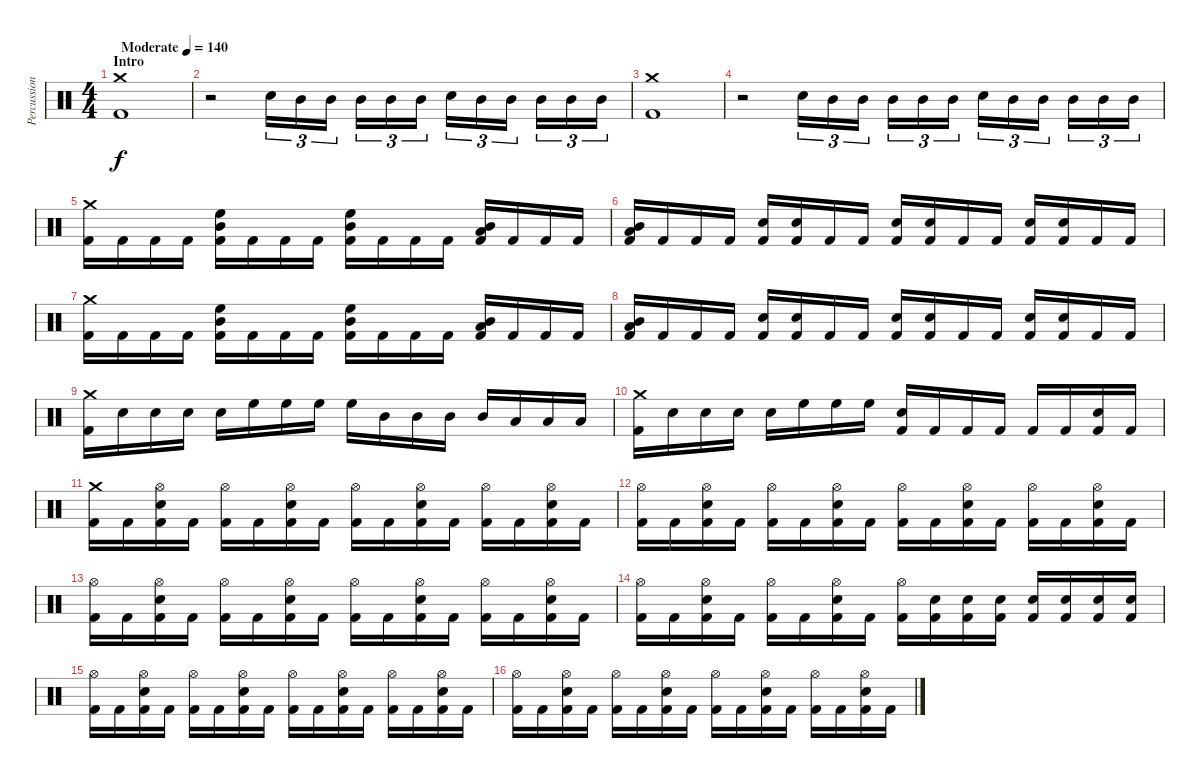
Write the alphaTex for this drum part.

\track ("Percussion" "Percussion") {instrument percussion}
\staff {score}
\articulation defaults
\ts (4 4)
\section ("" "Intro")
\tempo (140 "Moderate")
\clef neutral
\ks c
("Kick (hit) 2" "Crash medium (hit)").1{dy f} |
r.2 "Electric Snare (hit)".16{tu (3 2)} "Mid Tom (hit)".16{tu (3 2)} "Mid Tom (hit)".16{tu (3 2) beam splitsecondary} "Mid Tom (hit)".16{tu (3 2)} "Mid Tom (hit)".16{tu (3 2)} "Mid Tom (hit)".16{tu (3 2)} "Electric Snare (hit)".16{tu (3 2)} "Mid Tom (hit)".16{tu (3 2)} "Mid Tom (hit)".16{tu (3 2) beam splitsecondary} "Mid Tom (hit)".16{tu (3 2)} "Mid Tom (hit)".16{tu (3 2)} "Mid Tom (hit)".16{tu (3 2)} |
("Kick (hit) 2" "Crash medium (hit)").1 |
r.2 "Electric Snare (hit)".16{tu (3 2)} "Mid Tom (hit)".16{tu (3 2)} "Mid Tom (hit)".16{tu (3 2) beam splitsecondary} "Mid Tom (hit)".16{tu (3 2)} "Mid Tom (hit)".16{tu (3 2)} "Mid Tom (hit)".16{tu (3 2)} "Electric Snare (hit)".16{tu (3 2)} "Mid Tom (hit)".16{tu (3 2)} "Mid Tom (hit)".16{tu (3 2) beam splitsecondary} "Mid Tom (hit)".16{tu (3 2)} "Mid Tom (hit)".16{tu (3 2)} "Mid Tom (hit)".16{tu (3 2)} |
("Kick (hit) 2" "Crash medium (hit)").16 "Kick (hit) 2".16 "Kick (hit) 2".16 "Kick (hit) 2".16 ("Kick (hit) 2" "High Floor Tom (hit)" "Mid Tom (hit)").16 "Kick (hit) 2".16 "Kick (hit) 2".16 "Kick (hit) 2".16 ("Kick (hit) 2" "High Floor Tom (hit)" "Mid Tom (hit)").16 "Kick (hit) 2".16 "Kick (hit) 2".16 "Kick (hit) 2".16 ("Kick (hit) 2" "Mid Tom (hit)" "Low Floor Tom (hit)").16 "Kick (hit) 2".16 "Kick (hit) 2".16 "Kick (hit) 2".16 |
("Kick (hit) 2" "Mid Tom (hit)" "Low Floor Tom (hit)").16 "Kick (hit) 2".16 "Kick (hit) 2".16 "Kick (hit) 2".16 ("Kick (hit) 2" "Electric Snare (hit)").16 ("Kick (hit) 2" "Electric Snare (hit)").16 "Kick (hit) 2".16 "Kick (hit) 2".16 ("Kick (hit) 2" "Electric Snare (hit)").16 ("Kick (hit) 2" "Electric Snare (hit)").16 "Kick (hit) 2".16 "Kick (hit) 2".16 ("Kick (hit) 2" "Electric Snare (hit)").16 ("Kick (hit) 2" "Electric Snare (hit)").16 "Kick (hit) 2".16 "Kick (hit) 2".16 |
("Kick (hit) 2" "Crash medium (hit)").16 "Kick (hit) 2".16 "Kick (hit) 2".16 "Kick (hit) 2".16 ("Kick (hit) 2" "High Floor Tom (hit)" "Mid Tom (hit)").16 "Kick (hit) 2".16 "Kick (hit) 2".16 "Kick (hit) 2".16 ("Kick (hit) 2" "High Floor Tom (hit)" "Mid Tom (hit)").16 "Kick (hit) 2".16 "Kick (hit) 2".16 "Kick (hit) 2".16 ("Kick (hit) 2" "Mid Tom (hit)" "Low Floor Tom (hit)").16 "Kick (hit) 2".16 "Kick (hit) 2".16 "Kick (hit) 2".16 |
("Kick (hit) 2" "Mid Tom (hit)" "Low Floor Tom (hit)").16 "Kick (hit) 2".16 "Kick (hit) 2".16 "Kick (hit) 2".16 ("Kick (hit) 2" "Electric Snare (hit)").16 ("Kick (hit) 2" "Electric Snare (hit)").16 "Kick (hit) 2".16 "Kick (hit) 2".16 ("Kick (hit) 2" "Electric Snare (hit)").16 ("Kick (hit) 2" "Electric Snare (hit)").16 "Kick (hit) 2".16 "Kick (hit) 2".16 ("Kick (hit) 2" "Electric Snare (hit)").16 ("Kick (hit) 2" "Electric Snare (hit)").16 "Kick (hit) 2".16 "Kick (hit) 2".16 |
("Kick (hit) 2" "Crash medium (hit)").16 "Electric Snare (hit)".16 "Electric Snare (hit)".16 "Electric Snare (hit)".16 "Electric Snare (hit)".16 "High Floor Tom (hit)".16 "High Floor Tom (hit)".16 "High Floor Tom (hit)".16 "High Floor Tom (hit)".16 "Mid Tom (hit)".16 "Mid Tom (hit)".16 "Mid Tom (hit)".16 "Mid Tom (hit)".16 "Low Floor Tom (hit)".16 "Low Floor Tom (hit)".16 "Low Floor Tom (hit)".16 |
("Kick (hit) 2" "Crash medium (hit)").16 "Electric Snare (hit)".16 "Electric Snare (hit)".16 "Electric Snare (hit)".16 "Electric Snare (hit)".16 "High Floor Tom (hit)".16 "High Floor Tom (hit)".16 "High Floor Tom (hit)".16 ("Kick (hit) 2" "Electric Snare (hit)").16 "Kick (hit) 2".16 "Kick (hit) 2".16 "Kick (hit) 2".16 "Kick (hit) 2".16 "Kick (hit) 2".16 ("Kick (hit) 2" "Electric Snare (hit)").16 "Kick (hit) 2".16 |
("Kick (hit) 2" "Crash medium (hit)").16 "Kick (hit) 2".16 ("Kick (hit) 2" "Electric Snare (hit)" "Hi-Hat (open)").16 "Kick (hit) 2".16 ("Kick (hit) 2" "Hi-Hat (open)").16 "Kick (hit) 2".16 ("Kick (hit) 2" "Electric Snare (hit)" "Hi-Hat (open)").16 "Kick (hit) 2".16 ("Kick (hit) 2" "Hi-Hat (open)").16 "Kick (hit) 2".16 ("Kick (hit) 2" "Electric Snare (hit)" "Hi-Hat (open)").16 "Kick (hit) 2".16 ("Kick (hit) 2" "Hi-Hat (open)").16 "Kick (hit) 2".16 ("Kick (hit) 2" "Electric Snare (hit)" "Hi-Hat (open)").16 "Kick (hit) 2".16 |
("Kick (hit) 2" "Hi-Hat (open)").16 "Kick (hit) 2".16 ("Kick (hit) 2" "Electric Snare (hit)" "Hi-Hat (open)").16 "Kick (hit) 2".16 ("Kick (hit) 2" "Hi-Hat (open)").16 "Kick (hit) 2".16 ("Kick (hit) 2" "Electric Snare (hit)" "Hi-Hat (open)").16 "Kick (hit) 2".16 ("Kick (hit) 2" "Hi-Hat (open)").16 "Kick (hit) 2".16 ("Kick (hit) 2" "Electric Snare (hit)" "Hi-Hat (open)").16 "Kick (hit) 2".16 ("Kick (hit) 2" "Hi-Hat (open)").16 "Kick (hit) 2".16 ("Kick (hit) 2" "Electric Snare (hit)" "Hi-Hat (open)").16 "Kick (hit) 2".16 |
("Kick (hit) 2" "Hi-Hat (open)").16 "Kick (hit) 2".16 ("Kick (hit) 2" "Electric Snare (hit)" "Hi-Hat (open)").16 "Kick (hit) 2".16 ("Kick (hit) 2" "Hi-Hat (open)").16 "Kick (hit) 2".16 ("Kick (hit) 2" "Electric Snare (hit)" "Hi-Hat (open)").16 "Kick (hit) 2".16 ("Kick (hit) 2" "Hi-Hat (open)").16 "Kick (hit) 2".16 ("Kick (hit) 2" "Electric Snare (hit)" "Hi-Hat (open)").16 "Kick (hit) 2".16 ("Kick (hit) 2" "Hi-Hat (open)").16 "Kick (hit) 2".16 ("Kick (hit) 2" "Electric Snare (hit)" "Hi-Hat (open)").16 "Kick (hit) 2".16 |
("Kick (hit) 2" "Hi-Hat (open)").16 "Kick (hit) 2".16 ("Kick (hit) 2" "Electric Snare (hit)" "Hi-Hat (open)").16 "Kick (hit) 2".16 ("Kick (hit) 2" "Hi-Hat (open)").16 "Kick (hit) 2".16 ("Kick (hit) 2" "Electric Snare (hit)" "Hi-Hat (open)").16 "Kick (hit) 2".16 ("Kick (hit) 2" "Hi-Hat (open)").16 ("Kick (hit) 2" "Electric Snare (hit)").16 ("Kick (hit) 2" "Electric Snare (hit)").16 ("Kick (hit) 2" "Electric Snare (hit)").16 ("Kick (hit) 2" "Electric Snare (hit)").16 ("Kick (hit) 2" "Electric Snare (hit)").16 ("Kick (hit) 2" "Electric Snare (hit)").16 ("Kick (hit) 2" "Electric Snare (hit)").16 |
("Kick (hit) 2" "Hi-Hat (open)").16 "Kick (hit) 2".16 ("Kick (hit) 2" "Electric Snare (hit)" "Hi-Hat (open)").16 "Kick (hit) 2".16 ("Kick (hit) 2" "Hi-Hat (open)").16 "Kick (hit) 2".16 ("Kick (hit) 2" "Electric Snare (hit)" "Hi-Hat (open)").16 "Kick (hit) 2".16 ("Kick (hit) 2" "Hi-Hat (open)").16 "Kick (hit) 2".16 ("Kick (hit) 2" "Electric Snare (hit)" "Hi-Hat (open)").16 "Kick (hit) 2".16 ("Kick (hit) 2" "Hi-Hat (open)").16 "Kick (hit) 2".16 ("Kick (hit) 2" "Electric Snare (hit)" "Hi-Hat (open)").16 "Kick (hit) 2".16 |
("Kick (hit) 2" "Hi-Hat (open)").16 "Kick (hit) 2".16 ("Kick (hit) 2" "Electric Snare (hit)" "Hi-Hat (open)").16 "Kick (hit) 2".16 ("Kick (hit) 2" "Hi-Hat (open)").16 "Kick (hit) 2".16 ("Kick (hit) 2" "Electric Snare (hit)" "Hi-Hat (open)").16 "Kick (hit) 2".16 ("Kick (hit) 2" "Hi-Hat (open)").16 "Kick (hit) 2".16 ("Kick (hit) 2" "Electric Snare (hit)" "Hi-Hat (open)").16 "Kick (hit) 2".16 ("Kick (hit) 2" "Hi-Hat (open)").16 "Kick (hit) 2".16 ("Kick (hit) 2" "Electric Snare (hit)" "Hi-Hat (open)").16 "Kick (hit) 2".16
